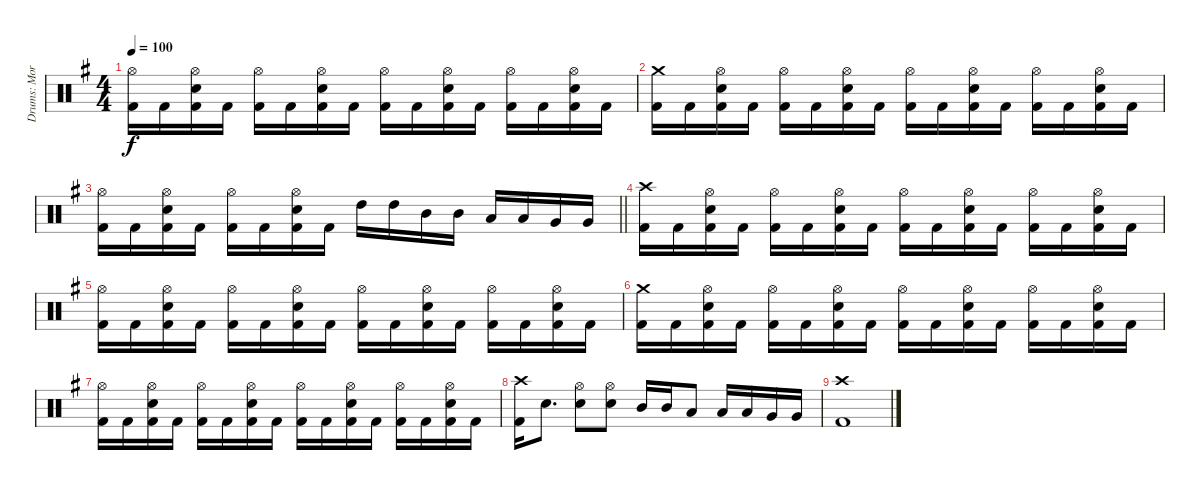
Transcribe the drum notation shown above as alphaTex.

\track ("Drums: Morten Færøvig" "Drums: Mor") {instrument percussion}
\staff {score}
\articulation defaults
\ts (4 4)
\tempo 100
\clef neutral
\ks eminor
("Hi-Hat (open)" "Kick (hit) 2").16{dy f} "Kick (hit) 2".16 ("Hi-Hat (open)" "Electric Snare (hit)" "Kick (hit) 2").16 "Kick (hit) 2".16 ("Hi-Hat (open)" "Kick (hit) 2").16 "Kick (hit) 2".16 ("Hi-Hat (open)" "Electric Snare (hit)" "Kick (hit) 2").16 "Kick (hit) 2".16 ("Hi-Hat (open)" "Kick (hit) 2").16 "Kick (hit) 2".16 ("Hi-Hat (open)" "Electric Snare (hit)" "Kick (hit) 2").16 "Kick (hit) 2".16 ("Hi-Hat (open)" "Kick (hit) 2").16 "Kick (hit) 2".16 ("Hi-Hat (open)" "Electric Snare (hit)" "Kick (hit) 2").16 "Kick (hit) 2".16 |
("Crash medium (hit)" "Kick (hit) 2").16 "Kick (hit) 2".16 ("Hi-Hat (open)" "Electric Snare (hit)" "Kick (hit) 2").16 "Kick (hit) 2".16 ("Hi-Hat (open)" "Kick (hit) 2").16 "Kick (hit) 2".16 ("Hi-Hat (open)" "Electric Snare (hit)" "Kick (hit) 2").16 "Kick (hit) 2".16 ("Hi-Hat (open)" "Kick (hit) 2").16 "Kick (hit) 2".16 ("Hi-Hat (open)" "Electric Snare (hit)" "Kick (hit) 2").16 "Kick (hit) 2".16 ("Hi-Hat (open)" "Kick (hit) 2").16 "Kick (hit) 2".16 ("Hi-Hat (open)" "Electric Snare (hit)" "Kick (hit) 2").16 "Kick (hit) 2".16 |
\barLineRight lightlight
("Hi-Hat (open)" "Kick (hit) 2").16 "Kick (hit) 2".16 ("Hi-Hat (open)" "Electric Snare (hit)" "Kick (hit) 2").16 "Kick (hit) 2".16 ("Hi-Hat (open)" "Kick (hit) 2").16 "Kick (hit) 2".16 ("Hi-Hat (open)" "Electric Snare (hit)" "Kick (hit) 2").16 "Kick (hit) 2".16 "High Tom (hit)".16 "High Tom (hit)".16 "Mid Tom (hit)".16 "Mid Tom (hit)".16 "Low Tom (hit)".16 "Low Tom (hit)".16 "Very Low Tom (hit)".16 "Very Low Tom (hit)".16 |
("Crash high (hit)" "Kick (hit) 2").16 "Kick (hit) 2".16 ("Hi-Hat (open)" "Electric Snare (hit)" "Kick (hit) 2").16 "Kick (hit) 2".16 ("Hi-Hat (open)" "Kick (hit) 2").16 "Kick (hit) 2".16 ("Hi-Hat (open)" "Electric Snare (hit)" "Kick (hit) 2").16 "Kick (hit) 2".16 ("Hi-Hat (open)" "Kick (hit) 2").16 "Kick (hit) 2".16 ("Hi-Hat (open)" "Electric Snare (hit)" "Kick (hit) 2").16 "Kick (hit) 2".16 ("Hi-Hat (open)" "Kick (hit) 2").16 "Kick (hit) 2".16 ("Hi-Hat (open)" "Electric Snare (hit)" "Kick (hit) 2").16 "Kick (hit) 2".16 |
("Hi-Hat (open)" "Kick (hit) 2").16 "Kick (hit) 2".16 ("Hi-Hat (open)" "Electric Snare (hit)" "Kick (hit) 2").16 "Kick (hit) 2".16 ("Hi-Hat (open)" "Kick (hit) 2").16 "Kick (hit) 2".16 ("Hi-Hat (open)" "Electric Snare (hit)" "Kick (hit) 2").16 "Kick (hit) 2".16 ("Hi-Hat (open)" "Kick (hit) 2").16 "Kick (hit) 2".16 ("Hi-Hat (open)" "Electric Snare (hit)" "Kick (hit) 2").16 "Kick (hit) 2".16 ("Hi-Hat (open)" "Kick (hit) 2").16 "Kick (hit) 2".16 ("Hi-Hat (open)" "Electric Snare (hit)" "Kick (hit) 2").16 "Kick (hit) 2".16 |
("Crash medium (hit)" "Kick (hit) 2").16 "Kick (hit) 2".16 ("Hi-Hat (open)" "Electric Snare (hit)" "Kick (hit) 2").16 "Kick (hit) 2".16 ("Hi-Hat (open)" "Kick (hit) 2").16 "Kick (hit) 2".16 ("Hi-Hat (open)" "Electric Snare (hit)" "Kick (hit) 2").16 "Kick (hit) 2".16 ("Hi-Hat (open)" "Kick (hit) 2").16 "Kick (hit) 2".16 ("Hi-Hat (open)" "Electric Snare (hit)" "Kick (hit) 2").16 "Kick (hit) 2".16 ("Hi-Hat (open)" "Kick (hit) 2").16 "Kick (hit) 2".16 ("Hi-Hat (open)" "Electric Snare (hit)" "Kick (hit) 2").16 "Kick (hit) 2".16 |
("Hi-Hat (open)" "Kick (hit) 2").16 "Kick (hit) 2".16 ("Hi-Hat (open)" "Electric Snare (hit)" "Kick (hit) 2").16 "Kick (hit) 2".16 ("Hi-Hat (open)" "Kick (hit) 2").16 "Kick (hit) 2".16 ("Hi-Hat (open)" "Electric Snare (hit)" "Kick (hit) 2").16 "Kick (hit) 2".16 ("Hi-Hat (open)" "Kick (hit) 2").16 "Kick (hit) 2".16 ("Hi-Hat (open)" "Electric Snare (hit)" "Kick (hit) 2").16 "Kick (hit) 2".16 ("Hi-Hat (open)" "Kick (hit) 2").16 "Kick (hit) 2".16 ("Hi-Hat (open)" "Electric Snare (hit)" "Kick (hit) 2").16 "Kick (hit) 2".16 |
("Crash high (hit)" "Kick (hit) 2").16 "Electric Snare (hit)".8{d} ("Hi-Hat (open)" "Electric Snare (hit)").8 ("Hi-Hat (open)" "Electric Snare (hit)").8 "Mid Tom (hit)".16 "Mid Tom (hit)".16 "Low Tom (hit)".8 "Low Tom (hit)".16 "Low Tom (hit)".16 "Very Low Tom (hit)".16 "Very Low Tom (hit)".16 |
("Crash high (hit)" "Kick (hit) 2").1
